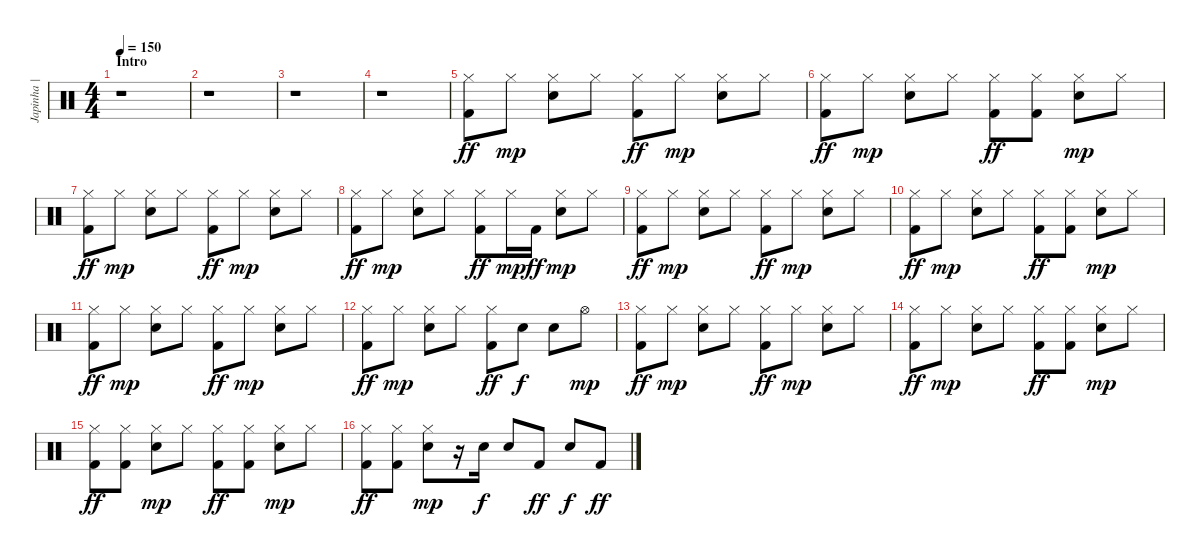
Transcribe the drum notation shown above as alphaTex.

\track ("Japinha | Bateria" "Japinha | ") {instrument percussion}
\staff {score}
\articulation defaults
\ts (4 4)
\section ("" "Intro")
\tempo 150
\clef neutral
\ks c
r.1{dy ff} |
r.1 |
r.1 |
r.1 |
("Hi-Hat (closed)" "Kick (hit) 2").8 "Hi-Hat (closed)".8{dy mp} ("Hi-Hat (closed)" "Electric Snare (hit)").8 "Hi-Hat (closed)".8 ("Hi-Hat (closed)" "Kick (hit) 2").8{dy ff} "Hi-Hat (closed)".8{dy mp} ("Hi-Hat (closed)" "Electric Snare (hit)").8 "Hi-Hat (closed)".8 |
("Hi-Hat (closed)" "Kick (hit) 2").8{dy ff} "Hi-Hat (closed)".8{dy mp} ("Hi-Hat (closed)" "Electric Snare (hit)").8 "Hi-Hat (closed)".8 ("Hi-Hat (closed)" "Kick (hit) 2").8{dy ff} ("Hi-Hat (closed)" "Kick (hit) 2").8 ("Hi-Hat (closed)" "Electric Snare (hit)").8{dy mp} "Hi-Hat (closed)".8 |
("Hi-Hat (closed)" "Kick (hit) 2").8{dy ff} "Hi-Hat (closed)".8{dy mp} ("Hi-Hat (closed)" "Electric Snare (hit)").8 "Hi-Hat (closed)".8 ("Hi-Hat (closed)" "Kick (hit) 2").8{dy ff} "Hi-Hat (closed)".8{dy mp} ("Hi-Hat (closed)" "Electric Snare (hit)").8 "Hi-Hat (closed)".8 |
("Hi-Hat (closed)" "Kick (hit) 2").8{dy ff} "Hi-Hat (closed)".8{dy mp} ("Hi-Hat (closed)" "Electric Snare (hit)").8 "Hi-Hat (closed)".8 ("Hi-Hat (closed)" "Kick (hit) 2").8{dy ff} "Hi-Hat (closed)".16{dy mp} "Kick (hit) 2".16{dy ff} ("Hi-Hat (closed)" "Electric Snare (hit)").8{dy mp} "Hi-Hat (closed)".8 |
("Hi-Hat (closed)" "Kick (hit) 2").8{dy ff} "Hi-Hat (closed)".8{dy mp} ("Hi-Hat (closed)" "Electric Snare (hit)").8 "Hi-Hat (closed)".8 ("Hi-Hat (closed)" "Kick (hit) 2").8{dy ff} "Hi-Hat (closed)".8{dy mp} ("Hi-Hat (closed)" "Electric Snare (hit)").8 "Hi-Hat (closed)".8 |
("Hi-Hat (closed)" "Kick (hit) 2").8{dy ff} "Hi-Hat (closed)".8{dy mp} ("Hi-Hat (closed)" "Electric Snare (hit)").8 "Hi-Hat (closed)".8 ("Hi-Hat (closed)" "Kick (hit) 2").8{dy ff} ("Hi-Hat (closed)" "Kick (hit) 2").8 ("Hi-Hat (closed)" "Electric Snare (hit)").8{dy mp} "Hi-Hat (closed)".8 |
("Hi-Hat (closed)" "Kick (hit) 2").8{dy ff} "Hi-Hat (closed)".8{dy mp} ("Hi-Hat (closed)" "Electric Snare (hit)").8 "Hi-Hat (closed)".8 ("Hi-Hat (closed)" "Kick (hit) 2").8{dy ff} "Hi-Hat (closed)".8{dy mp} ("Hi-Hat (closed)" "Electric Snare (hit)").8 "Hi-Hat (closed)".8 |
("Hi-Hat (closed)" "Kick (hit) 2").8{dy ff} "Hi-Hat (closed)".8{dy mp} ("Hi-Hat (closed)" "Electric Snare (hit)").8 "Hi-Hat (closed)".8 ("Hi-Hat (closed)" "Kick (hit) 2").8{dy ff} "Electric Snare (hit)".8{dy f} "Electric Snare (hit)".8 "Hi-Hat (open)".8{dy mp} |
("Hi-Hat (closed)" "Kick (hit) 2").8{dy ff} "Hi-Hat (closed)".8{dy mp} ("Hi-Hat (closed)" "Electric Snare (hit)").8 "Hi-Hat (closed)".8 ("Hi-Hat (closed)" "Kick (hit) 2").8{dy ff} "Hi-Hat (closed)".8{dy mp} ("Hi-Hat (closed)" "Electric Snare (hit)").8 "Hi-Hat (closed)".8 |
("Hi-Hat (closed)" "Kick (hit) 2").8{dy ff} "Hi-Hat (closed)".8{dy mp} ("Hi-Hat (closed)" "Electric Snare (hit)").8 "Hi-Hat (closed)".8 ("Hi-Hat (closed)" "Kick (hit) 2").8{dy ff} ("Hi-Hat (closed)" "Kick (hit) 2").8 ("Hi-Hat (closed)" "Electric Snare (hit)").8{dy mp} "Hi-Hat (closed)".8 |
("Hi-Hat (closed)" "Kick (hit) 2").8{dy ff} ("Hi-Hat (closed)" "Kick (hit) 2").8 ("Hi-Hat (closed)" "Electric Snare (hit)").8{dy mp} "Hi-Hat (closed)".8 ("Hi-Hat (closed)" "Kick (hit) 2").8{dy ff} ("Hi-Hat (closed)" "Kick (hit) 2").8 ("Hi-Hat (closed)" "Electric Snare (hit)").8{dy mp} "Hi-Hat (closed)".8 |
("Hi-Hat (closed)" "Kick (hit) 2").8{dy ff} ("Hi-Hat (closed)" "Kick (hit) 2").8 ("Hi-Hat (closed)" "Electric Snare (hit)").8{dy mp} r.16 "Electric Snare (hit)".16{dy f} "Electric Snare (hit)".8 "Kick (hit) 2".8{dy ff} "Electric Snare (hit)".8{dy f} "Kick (hit) 2".8{dy ff}
